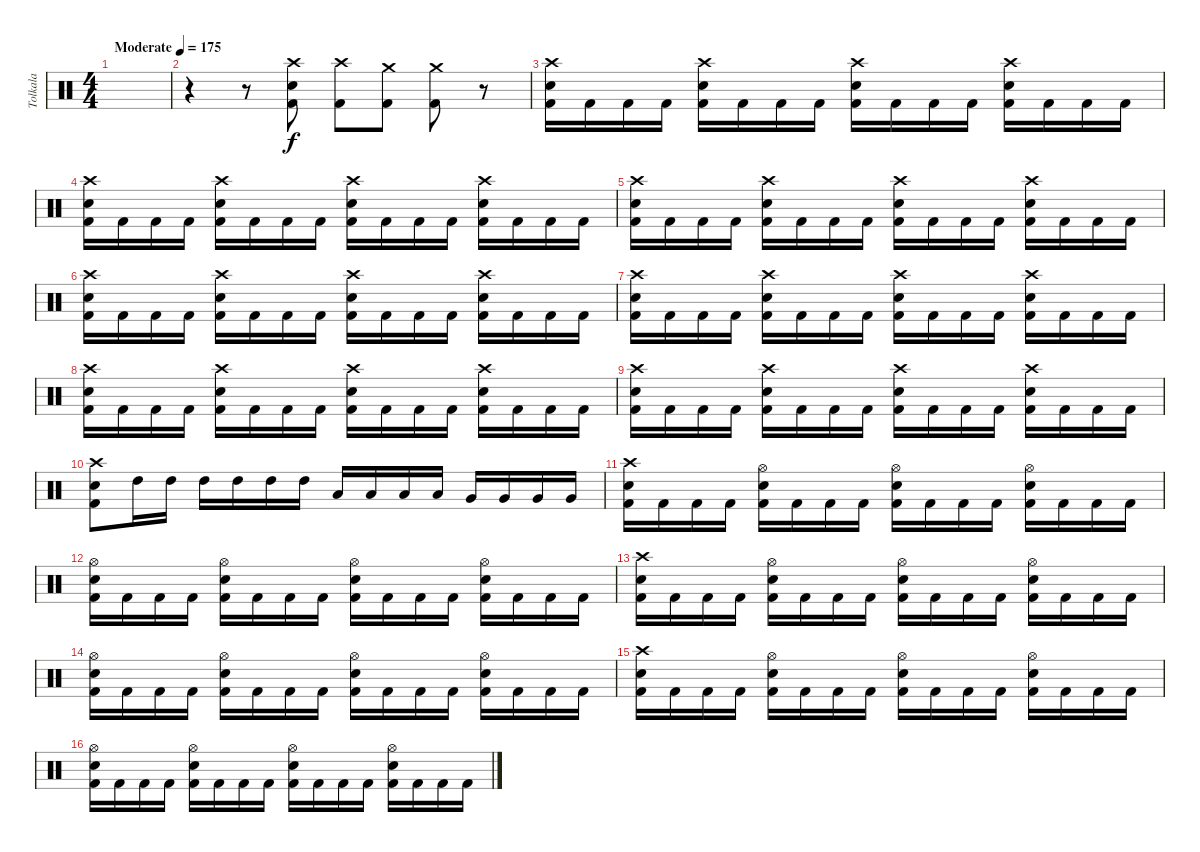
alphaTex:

\track ("Tolkala" "Tolkala") {instrument percussion}
\staff {score}
\articulation defaults
\ts (4 4)
\tempo (175 "Moderate")
\clef neutral
\ks c
|
r.4 r.8 ("Crash high (hit)" "Electric Snare (hit)" "Kick (hit) 2").8 ("Crash high (hit)" "Kick (hit) 2").8 ("Crash medium (hit)" "Kick (hit) 2").8 ("Crash medium (hit)" "Kick (hit) 2").8 r.8 |
("Crash high (hit)" "Electric Snare (hit)" "Kick (hit) 2").16 "Kick (hit) 2".16 "Kick (hit) 2".16 "Kick (hit) 2".16 ("Crash high (hit)" "Electric Snare (hit)" "Kick (hit) 2").16 "Kick (hit) 2".16 "Kick (hit) 2".16 "Kick (hit) 2".16 ("Crash high (hit)" "Electric Snare (hit)" "Kick (hit) 2").16 "Kick (hit) 2".16 "Kick (hit) 2".16 "Kick (hit) 2".16 ("Crash high (hit)" "Electric Snare (hit)" "Kick (hit) 2").16 "Kick (hit) 2".16 "Kick (hit) 2".16 "Kick (hit) 2".16 |
("Crash high (hit)" "Electric Snare (hit)" "Kick (hit) 2").16 "Kick (hit) 2".16 "Kick (hit) 2".16 "Kick (hit) 2".16 ("Crash high (hit)" "Electric Snare (hit)" "Kick (hit) 2").16 "Kick (hit) 2".16 "Kick (hit) 2".16 "Kick (hit) 2".16 ("Crash high (hit)" "Electric Snare (hit)" "Kick (hit) 2").16 "Kick (hit) 2".16 "Kick (hit) 2".16 "Kick (hit) 2".16 ("Crash high (hit)" "Electric Snare (hit)" "Kick (hit) 2").16 "Kick (hit) 2".16 "Kick (hit) 2".16 "Kick (hit) 2".16 |
("Crash high (hit)" "Electric Snare (hit)" "Kick (hit) 2").16 "Kick (hit) 2".16 "Kick (hit) 2".16 "Kick (hit) 2".16 ("Crash high (hit)" "Electric Snare (hit)" "Kick (hit) 2").16 "Kick (hit) 2".16 "Kick (hit) 2".16 "Kick (hit) 2".16 ("Crash high (hit)" "Electric Snare (hit)" "Kick (hit) 2").16 "Kick (hit) 2".16 "Kick (hit) 2".16 "Kick (hit) 2".16 ("Crash high (hit)" "Electric Snare (hit)" "Kick (hit) 2").16 "Kick (hit) 2".16 "Kick (hit) 2".16 "Kick (hit) 2".16 |
("Crash high (hit)" "Electric Snare (hit)" "Kick (hit) 2").16 "Kick (hit) 2".16 "Kick (hit) 2".16 "Kick (hit) 2".16 ("Crash high (hit)" "Electric Snare (hit)" "Kick (hit) 2").16 "Kick (hit) 2".16 "Kick (hit) 2".16 "Kick (hit) 2".16 ("Crash high (hit)" "Electric Snare (hit)" "Kick (hit) 2").16 "Kick (hit) 2".16 "Kick (hit) 2".16 "Kick (hit) 2".16 ("Crash high (hit)" "Electric Snare (hit)" "Kick (hit) 2").16 "Kick (hit) 2".16 "Kick (hit) 2".16 "Kick (hit) 2".16 |
("Crash high (hit)" "Electric Snare (hit)" "Kick (hit) 2").16 "Kick (hit) 2".16 "Kick (hit) 2".16 "Kick (hit) 2".16 ("Crash high (hit)" "Electric Snare (hit)" "Kick (hit) 2").16 "Kick (hit) 2".16 "Kick (hit) 2".16 "Kick (hit) 2".16 ("Crash high (hit)" "Electric Snare (hit)" "Kick (hit) 2").16 "Kick (hit) 2".16 "Kick (hit) 2".16 "Kick (hit) 2".16 ("Crash high (hit)" "Electric Snare (hit)" "Kick (hit) 2").16 "Kick (hit) 2".16 "Kick (hit) 2".16 "Kick (hit) 2".16 |
("Crash high (hit)" "Electric Snare (hit)" "Kick (hit) 2").16 "Kick (hit) 2".16 "Kick (hit) 2".16 "Kick (hit) 2".16 ("Crash high (hit)" "Electric Snare (hit)" "Kick (hit) 2").16 "Kick (hit) 2".16 "Kick (hit) 2".16 "Kick (hit) 2".16 ("Crash high (hit)" "Electric Snare (hit)" "Kick (hit) 2").16 "Kick (hit) 2".16 "Kick (hit) 2".16 "Kick (hit) 2".16 ("Crash high (hit)" "Electric Snare (hit)" "Kick (hit) 2").16 "Kick (hit) 2".16 "Kick (hit) 2".16 "Kick (hit) 2".16 |
("Crash high (hit)" "Electric Snare (hit)" "Kick (hit) 2").16 "Kick (hit) 2".16 "Kick (hit) 2".16 "Kick (hit) 2".16 ("Crash high (hit)" "Electric Snare (hit)" "Kick (hit) 2").16 "Kick (hit) 2".16 "Kick (hit) 2".16 "Kick (hit) 2".16 ("Crash high (hit)" "Electric Snare (hit)" "Kick (hit) 2").16 "Kick (hit) 2".16 "Kick (hit) 2".16 "Kick (hit) 2".16 ("Crash high (hit)" "Electric Snare (hit)" "Kick (hit) 2").16 "Kick (hit) 2".16 "Kick (hit) 2".16 "Kick (hit) 2".16 |
("Crash high (hit)" "Electric Snare (hit)" "Kick (hit) 2").8 "High Tom (hit)".16 "High Tom (hit)".16 "High Tom (hit)".16 "High Tom (hit)".16 "High Tom (hit)".16 "High Tom (hit)".16 "Low Tom (hit)".16 "Low Tom (hit)".16 "Low Tom (hit)".16 "Low Tom (hit)".16 "Very Low Tom (hit)".16 "Very Low Tom (hit)".16 "Very Low Tom (hit)".16 "Very Low Tom (hit)".16 |
("Crash high (hit)" "Electric Snare (hit)" "Kick (hit) 2").16 "Kick (hit) 2".16 "Kick (hit) 2".16 "Kick (hit) 2".16 ("Hi-Hat (open)" "Electric Snare (hit)" "Kick (hit) 2").16 "Kick (hit) 2".16 "Kick (hit) 2".16 "Kick (hit) 2".16 ("Hi-Hat (open)" "Electric Snare (hit)" "Kick (hit) 2").16 "Kick (hit) 2".16 "Kick (hit) 2".16 "Kick (hit) 2".16 ("Hi-Hat (open)" "Electric Snare (hit)" "Kick (hit) 2").16 "Kick (hit) 2".16 "Kick (hit) 2".16 "Kick (hit) 2".16 |
("Hi-Hat (open)" "Electric Snare (hit)" "Kick (hit) 2").16 "Kick (hit) 2".16 "Kick (hit) 2".16 "Kick (hit) 2".16 ("Hi-Hat (open)" "Electric Snare (hit)" "Kick (hit) 2").16 "Kick (hit) 2".16 "Kick (hit) 2".16 "Kick (hit) 2".16 ("Hi-Hat (open)" "Electric Snare (hit)" "Kick (hit) 2").16 "Kick (hit) 2".16 "Kick (hit) 2".16 "Kick (hit) 2".16 ("Hi-Hat (open)" "Electric Snare (hit)" "Kick (hit) 2").16 "Kick (hit) 2".16 "Kick (hit) 2".16 "Kick (hit) 2".16 |
("Crash high (hit)" "Electric Snare (hit)" "Kick (hit) 2").16 "Kick (hit) 2".16 "Kick (hit) 2".16 "Kick (hit) 2".16 ("Hi-Hat (open)" "Electric Snare (hit)" "Kick (hit) 2").16 "Kick (hit) 2".16 "Kick (hit) 2".16 "Kick (hit) 2".16 ("Hi-Hat (open)" "Electric Snare (hit)" "Kick (hit) 2").16 "Kick (hit) 2".16 "Kick (hit) 2".16 "Kick (hit) 2".16 ("Hi-Hat (open)" "Electric Snare (hit)" "Kick (hit) 2").16 "Kick (hit) 2".16 "Kick (hit) 2".16 "Kick (hit) 2".16 |
("Hi-Hat (open)" "Electric Snare (hit)" "Kick (hit) 2").16 "Kick (hit) 2".16 "Kick (hit) 2".16 "Kick (hit) 2".16 ("Hi-Hat (open)" "Electric Snare (hit)" "Kick (hit) 2").16 "Kick (hit) 2".16 "Kick (hit) 2".16 "Kick (hit) 2".16 ("Hi-Hat (open)" "Electric Snare (hit)" "Kick (hit) 2").16 "Kick (hit) 2".16 "Kick (hit) 2".16 "Kick (hit) 2".16 ("Hi-Hat (open)" "Electric Snare (hit)" "Kick (hit) 2").16 "Kick (hit) 2".16 "Kick (hit) 2".16 "Kick (hit) 2".16 |
("Crash high (hit)" "Electric Snare (hit)" "Kick (hit) 2").16 "Kick (hit) 2".16 "Kick (hit) 2".16 "Kick (hit) 2".16 ("Hi-Hat (open)" "Electric Snare (hit)" "Kick (hit) 2").16 "Kick (hit) 2".16 "Kick (hit) 2".16 "Kick (hit) 2".16 ("Hi-Hat (open)" "Electric Snare (hit)" "Kick (hit) 2").16 "Kick (hit) 2".16 "Kick (hit) 2".16 "Kick (hit) 2".16 ("Hi-Hat (open)" "Electric Snare (hit)" "Kick (hit) 2").16 "Kick (hit) 2".16 "Kick (hit) 2".16 "Kick (hit) 2".16 |
("Hi-Hat (open)" "Electric Snare (hit)" "Kick (hit) 2").16 "Kick (hit) 2".16 "Kick (hit) 2".16 "Kick (hit) 2".16 ("Hi-Hat (open)" "Electric Snare (hit)" "Kick (hit) 2").16 "Kick (hit) 2".16 "Kick (hit) 2".16 "Kick (hit) 2".16 ("Hi-Hat (open)" "Electric Snare (hit)" "Kick (hit) 2").16 "Kick (hit) 2".16 "Kick (hit) 2".16 "Kick (hit) 2".16 ("Hi-Hat (open)" "Electric Snare (hit)" "Kick (hit) 2").16 "Kick (hit) 2".16 "Kick (hit) 2".16 "Kick (hit) 2".16
